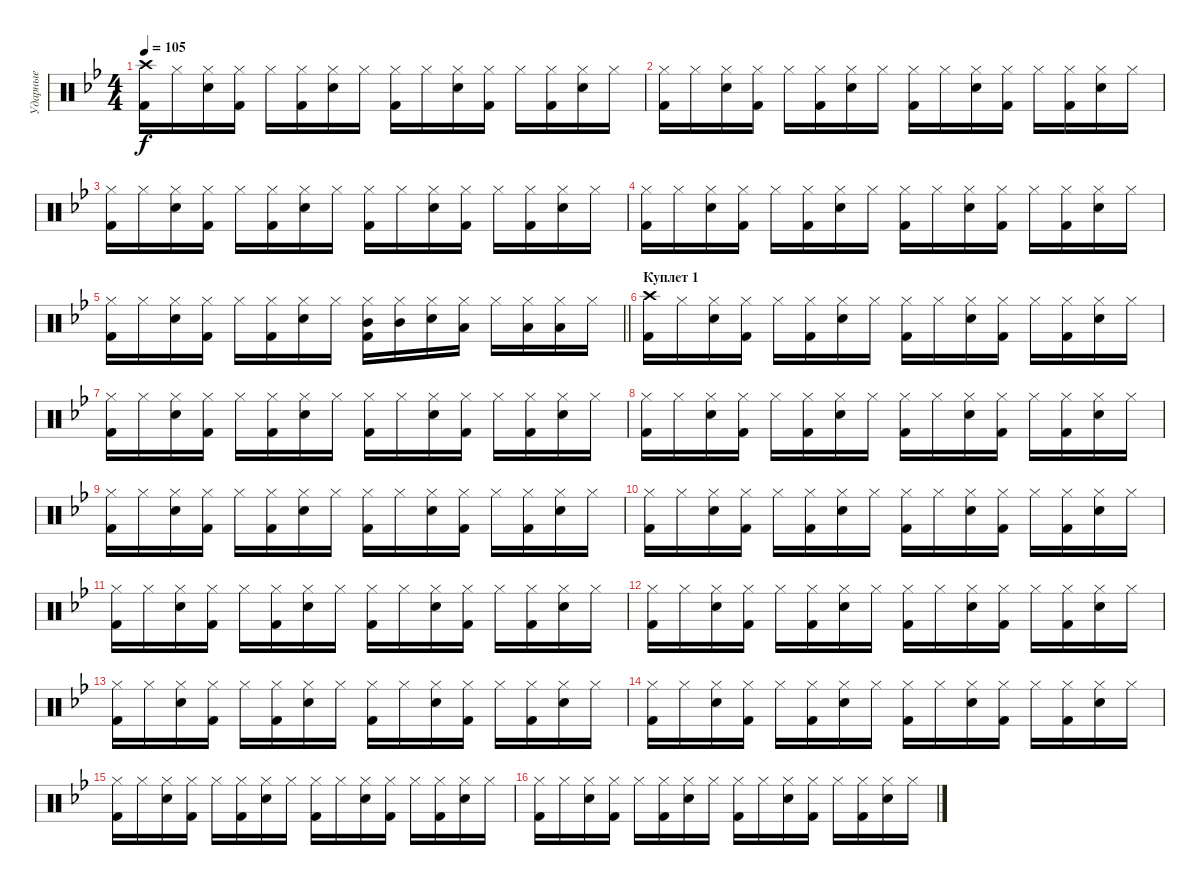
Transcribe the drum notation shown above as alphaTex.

\track ("Ударные" "Ударные") {instrument percussion}
\staff {score}
\articulation defaults
\ts (4 4)
\tempo 105
\clef neutral
\ks gminor
("Crash high (hit)" "Kick (hit) 2").16{dy f} "Hi-Hat (closed)".16 ("Hi-Hat (closed)" "Snare (hit) 2").16 ("Hi-Hat (closed)" "Kick (hit) 2").16 "Hi-Hat (closed)".16 ("Hi-Hat (closed)" "Kick (hit) 2").16 ("Hi-Hat (closed)" "Snare (hit) 2").16 "Hi-Hat (closed)".16 ("Hi-Hat (closed)" "Kick (hit) 2").16 "Hi-Hat (closed)".16 ("Hi-Hat (closed)" "Snare (hit) 2").16 ("Hi-Hat (closed)" "Kick (hit) 2").16 "Hi-Hat (closed)".16 ("Hi-Hat (closed)" "Kick (hit) 2").16 ("Hi-Hat (closed)" "Snare (hit) 2").16 "Hi-Hat (closed)".16 |
("Hi-Hat (closed)" "Kick (hit) 2").16 "Hi-Hat (closed)".16 ("Hi-Hat (closed)" "Snare (hit) 2").16 ("Hi-Hat (closed)" "Kick (hit) 2").16 "Hi-Hat (closed)".16 ("Hi-Hat (closed)" "Kick (hit) 2").16 ("Hi-Hat (closed)" "Snare (hit) 2").16 "Hi-Hat (closed)".16 ("Hi-Hat (closed)" "Kick (hit) 2").16 "Hi-Hat (closed)".16 ("Hi-Hat (closed)" "Snare (hit) 2").16 ("Hi-Hat (closed)" "Kick (hit) 2").16 "Hi-Hat (closed)".16 ("Hi-Hat (closed)" "Kick (hit) 2").16 ("Hi-Hat (closed)" "Snare (hit) 2").16 "Hi-Hat (closed)".16 |
("Hi-Hat (closed)" "Kick (hit) 2").16 "Hi-Hat (closed)".16 ("Hi-Hat (closed)" "Snare (hit) 2").16 ("Hi-Hat (closed)" "Kick (hit) 2").16 "Hi-Hat (closed)".16 ("Hi-Hat (closed)" "Kick (hit) 2").16 ("Hi-Hat (closed)" "Snare (hit) 2").16 "Hi-Hat (closed)".16 ("Hi-Hat (closed)" "Kick (hit) 2").16 "Hi-Hat (closed)".16 ("Hi-Hat (closed)" "Snare (hit) 2").16 ("Hi-Hat (closed)" "Kick (hit) 2").16 "Hi-Hat (closed)".16 ("Hi-Hat (closed)" "Kick (hit) 2").16 ("Hi-Hat (closed)" "Snare (hit) 2").16 "Hi-Hat (closed)".16 |
("Hi-Hat (closed)" "Kick (hit) 2").16 "Hi-Hat (closed)".16 ("Hi-Hat (closed)" "Snare (hit) 2").16 ("Hi-Hat (closed)" "Kick (hit) 2").16 "Hi-Hat (closed)".16 ("Hi-Hat (closed)" "Kick (hit) 2").16 ("Hi-Hat (closed)" "Snare (hit) 2").16 "Hi-Hat (closed)".16 ("Hi-Hat (closed)" "Kick (hit) 2").16 "Hi-Hat (closed)".16 ("Hi-Hat (closed)" "Snare (hit) 2").16 ("Hi-Hat (closed)" "Kick (hit) 2").16 "Hi-Hat (closed)".16 ("Hi-Hat (closed)" "Kick (hit) 2").16 ("Hi-Hat (closed)" "Snare (hit) 2").16 "Hi-Hat (closed)".16 |
\barLineRight lightlight
("Hi-Hat (closed)" "Kick (hit) 2").16 "Hi-Hat (closed)".16 ("Hi-Hat (closed)" "Snare (hit) 2").16 ("Hi-Hat (closed)" "Kick (hit) 2").16 "Hi-Hat (closed)".16 ("Hi-Hat (closed)" "Kick (hit) 2").16 ("Hi-Hat (closed)" "Snare (hit) 2").16 "Hi-Hat (closed)".16 ("Hi-Hat (closed)" "Kick (hit) 2" "Mid Tom (hit)").16 ("Hi-Hat (closed)" "Mid Tom (hit)").16 ("Hi-Hat (closed)" "Snare (hit) 2").16 ("Hi-Hat (closed)" "Low Tom (hit)").16 "Hi-Hat (closed)".16 ("Hi-Hat (closed)" "Low Tom (hit)").16 ("Hi-Hat (closed)" "Low Tom (hit)").16 "Hi-Hat (closed)".16 |
\section ("" "Куплет 1")
("Crash high (hit)" "Kick (hit) 2").16 "Hi-Hat (closed)".16 ("Hi-Hat (closed)" "Snare (hit) 2").16 ("Hi-Hat (closed)" "Kick (hit) 2").16 "Hi-Hat (closed)".16 ("Hi-Hat (closed)" "Kick (hit) 2").16 ("Hi-Hat (closed)" "Snare (hit) 2").16 "Hi-Hat (closed)".16 ("Hi-Hat (closed)" "Kick (hit) 2").16 "Hi-Hat (closed)".16 ("Hi-Hat (closed)" "Snare (hit) 2").16 ("Hi-Hat (closed)" "Kick (hit) 2").16 "Hi-Hat (closed)".16 ("Hi-Hat (closed)" "Kick (hit) 2").16 ("Hi-Hat (closed)" "Snare (hit) 2").16 "Hi-Hat (closed)".16 |
("Hi-Hat (closed)" "Kick (hit) 2").16 "Hi-Hat (closed)".16 ("Hi-Hat (closed)" "Snare (hit) 2").16 ("Hi-Hat (closed)" "Kick (hit) 2").16 "Hi-Hat (closed)".16 ("Hi-Hat (closed)" "Kick (hit) 2").16 ("Hi-Hat (closed)" "Snare (hit) 2").16 "Hi-Hat (closed)".16 ("Hi-Hat (closed)" "Kick (hit) 2").16 "Hi-Hat (closed)".16 ("Hi-Hat (closed)" "Snare (hit) 2").16 ("Hi-Hat (closed)" "Kick (hit) 2").16 "Hi-Hat (closed)".16 ("Hi-Hat (closed)" "Kick (hit) 2").16 ("Hi-Hat (closed)" "Snare (hit) 2").16 "Hi-Hat (closed)".16 |
("Hi-Hat (closed)" "Kick (hit) 2").16 "Hi-Hat (closed)".16 ("Hi-Hat (closed)" "Snare (hit) 2").16 ("Hi-Hat (closed)" "Kick (hit) 2").16 "Hi-Hat (closed)".16 ("Hi-Hat (closed)" "Kick (hit) 2").16 ("Hi-Hat (closed)" "Snare (hit) 2").16 "Hi-Hat (closed)".16 ("Hi-Hat (closed)" "Kick (hit) 2").16 "Hi-Hat (closed)".16 ("Hi-Hat (closed)" "Snare (hit) 2").16 ("Hi-Hat (closed)" "Kick (hit) 2").16 "Hi-Hat (closed)".16 ("Hi-Hat (closed)" "Kick (hit) 2").16 ("Hi-Hat (closed)" "Snare (hit) 2").16 "Hi-Hat (closed)".16 |
("Hi-Hat (closed)" "Kick (hit) 2").16 "Hi-Hat (closed)".16 ("Hi-Hat (closed)" "Snare (hit) 2").16 ("Hi-Hat (closed)" "Kick (hit) 2").16 "Hi-Hat (closed)".16 ("Hi-Hat (closed)" "Kick (hit) 2").16 ("Hi-Hat (closed)" "Snare (hit) 2").16 "Hi-Hat (closed)".16 ("Hi-Hat (closed)" "Kick (hit) 2").16 "Hi-Hat (closed)".16 ("Hi-Hat (closed)" "Snare (hit) 2").16 ("Hi-Hat (closed)" "Kick (hit) 2").16 "Hi-Hat (closed)".16 ("Hi-Hat (closed)" "Kick (hit) 2").16 ("Hi-Hat (closed)" "Snare (hit) 2").16 "Hi-Hat (closed)".16 |
("Hi-Hat (closed)" "Kick (hit) 2").16 "Hi-Hat (closed)".16 ("Hi-Hat (closed)" "Snare (hit) 2").16 ("Hi-Hat (closed)" "Kick (hit) 2").16 "Hi-Hat (closed)".16 ("Hi-Hat (closed)" "Kick (hit) 2").16 ("Hi-Hat (closed)" "Snare (hit) 2").16 "Hi-Hat (closed)".16 ("Hi-Hat (closed)" "Kick (hit) 2").16 "Hi-Hat (closed)".16 ("Hi-Hat (closed)" "Snare (hit) 2").16 ("Hi-Hat (closed)" "Kick (hit) 2").16 "Hi-Hat (closed)".16 ("Hi-Hat (closed)" "Kick (hit) 2").16 ("Hi-Hat (closed)" "Snare (hit) 2").16 "Hi-Hat (closed)".16 |
("Hi-Hat (closed)" "Kick (hit) 2").16 "Hi-Hat (closed)".16 ("Hi-Hat (closed)" "Snare (hit) 2").16 ("Hi-Hat (closed)" "Kick (hit) 2").16 "Hi-Hat (closed)".16 ("Hi-Hat (closed)" "Kick (hit) 2").16 ("Hi-Hat (closed)" "Snare (hit) 2").16 "Hi-Hat (closed)".16 ("Hi-Hat (closed)" "Kick (hit) 2").16 "Hi-Hat (closed)".16 ("Hi-Hat (closed)" "Snare (hit) 2").16 ("Hi-Hat (closed)" "Kick (hit) 2").16 "Hi-Hat (closed)".16 ("Hi-Hat (closed)" "Kick (hit) 2").16 ("Hi-Hat (closed)" "Snare (hit) 2").16 "Hi-Hat (closed)".16 |
("Hi-Hat (closed)" "Kick (hit) 2").16 "Hi-Hat (closed)".16 ("Hi-Hat (closed)" "Snare (hit) 2").16 ("Hi-Hat (closed)" "Kick (hit) 2").16 "Hi-Hat (closed)".16 ("Hi-Hat (closed)" "Kick (hit) 2").16 ("Hi-Hat (closed)" "Snare (hit) 2").16 "Hi-Hat (closed)".16 ("Hi-Hat (closed)" "Kick (hit) 2").16 "Hi-Hat (closed)".16 ("Hi-Hat (closed)" "Snare (hit) 2").16 ("Hi-Hat (closed)" "Kick (hit) 2").16 "Hi-Hat (closed)".16 ("Hi-Hat (closed)" "Kick (hit) 2").16 ("Hi-Hat (closed)" "Snare (hit) 2").16 "Hi-Hat (closed)".16 |
("Hi-Hat (closed)" "Kick (hit) 2").16 "Hi-Hat (closed)".16 ("Hi-Hat (closed)" "Snare (hit) 2").16 ("Hi-Hat (closed)" "Kick (hit) 2").16 "Hi-Hat (closed)".16 ("Hi-Hat (closed)" "Kick (hit) 2").16 ("Hi-Hat (closed)" "Snare (hit) 2").16 "Hi-Hat (closed)".16 ("Hi-Hat (closed)" "Kick (hit) 2").16 "Hi-Hat (closed)".16 ("Hi-Hat (closed)" "Snare (hit) 2").16 ("Hi-Hat (closed)" "Kick (hit) 2").16 "Hi-Hat (closed)".16 ("Hi-Hat (closed)" "Kick (hit) 2").16 ("Hi-Hat (closed)" "Snare (hit) 2").16 "Hi-Hat (closed)".16 |
("Hi-Hat (closed)" "Kick (hit) 2").16 "Hi-Hat (closed)".16 ("Hi-Hat (closed)" "Snare (hit) 2").16 ("Hi-Hat (closed)" "Kick (hit) 2").16 "Hi-Hat (closed)".16 ("Hi-Hat (closed)" "Kick (hit) 2").16 ("Hi-Hat (closed)" "Snare (hit) 2").16 "Hi-Hat (closed)".16 ("Hi-Hat (closed)" "Kick (hit) 2").16 "Hi-Hat (closed)".16 ("Hi-Hat (closed)" "Snare (hit) 2").16 ("Hi-Hat (closed)" "Kick (hit) 2").16 "Hi-Hat (closed)".16 ("Hi-Hat (closed)" "Kick (hit) 2").16 ("Hi-Hat (closed)" "Snare (hit) 2").16 "Hi-Hat (closed)".16 |
("Hi-Hat (closed)" "Kick (hit) 2").16 "Hi-Hat (closed)".16 ("Hi-Hat (closed)" "Snare (hit) 2").16 ("Hi-Hat (closed)" "Kick (hit) 2").16 "Hi-Hat (closed)".16 ("Hi-Hat (closed)" "Kick (hit) 2").16 ("Hi-Hat (closed)" "Snare (hit) 2").16 "Hi-Hat (closed)".16 ("Hi-Hat (closed)" "Kick (hit) 2").16 "Hi-Hat (closed)".16 ("Hi-Hat (closed)" "Snare (hit) 2").16 ("Hi-Hat (closed)" "Kick (hit) 2").16 "Hi-Hat (closed)".16 ("Hi-Hat (closed)" "Kick (hit) 2").16 ("Hi-Hat (closed)" "Snare (hit) 2").16 "Hi-Hat (closed)".16 |
("Hi-Hat (closed)" "Kick (hit) 2").16 "Hi-Hat (closed)".16 ("Hi-Hat (closed)" "Snare (hit) 2").16 ("Hi-Hat (closed)" "Kick (hit) 2").16 "Hi-Hat (closed)".16 ("Hi-Hat (closed)" "Kick (hit) 2").16 ("Hi-Hat (closed)" "Snare (hit) 2").16 "Hi-Hat (closed)".16 ("Hi-Hat (closed)" "Kick (hit) 2").16 "Hi-Hat (closed)".16 ("Hi-Hat (closed)" "Snare (hit) 2").16 ("Hi-Hat (closed)" "Kick (hit) 2").16 "Hi-Hat (closed)".16 ("Hi-Hat (closed)" "Kick (hit) 2").16 ("Hi-Hat (closed)" "Snare (hit) 2").16 "Hi-Hat (closed)".16
